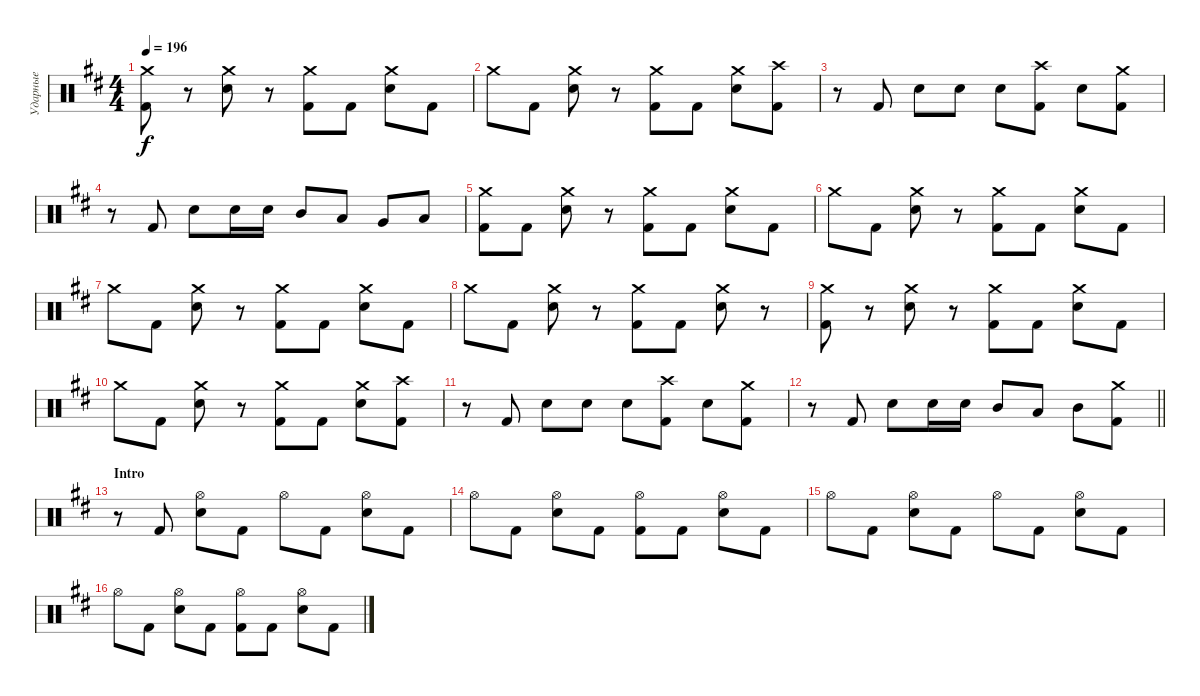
\track ("Ударные" "Ударные") {instrument percussion}
\staff {score}
\articulation defaults
\ts (4 4)
\tempo 196
\clef neutral
\ks d
("Crash medium (hit)" "Kick (hit) 2").8{dy f} r.8 ("Crash medium (hit)" "Electric Snare (hit)").8 r.8 ("Crash medium (hit)" "Kick (hit) 2").8 "Kick (hit) 2".8 ("Crash medium (hit)" "Electric Snare (hit)").8 "Kick (hit) 2".8 |
"Crash medium (hit)".8 "Kick (hit) 2".8 ("Crash medium (hit)" "Electric Snare (hit)").8 r.8 ("Crash medium (hit)" "Kick (hit) 2").8 "Kick (hit) 2".8 ("Crash medium (hit)" "Electric Snare (hit)").8 ("Crash high (hit)" "Kick (hit) 2").8 |
r.8 "Kick (hit) 2".8 "Electric Snare (hit)".8 "Electric Snare (hit)".8 "Electric Snare (hit)".8 ("Crash high (hit)" "Kick (hit) 2").8 "Electric Snare (hit)".8 ("Crash medium (hit)" "Kick (hit) 2").8 |
r.8 "Kick (hit) 2".8 "Electric Snare (hit)".8 "Electric Snare (hit)".16 "Electric Snare (hit)".16 "Mid Tom (hit)".8 "Low Tom (hit)".8 "Very Low Tom (hit)".8 "Low Floor Tom (hit)".8 |
("Crash medium (hit)" "Kick (hit) 2").8 "Kick (hit) 2".8 ("Crash medium (hit)" "Electric Snare (hit)").8 r.8 ("Crash medium (hit)" "Kick (hit) 2").8 "Kick (hit) 2".8 ("Crash medium (hit)" "Electric Snare (hit)").8 "Kick (hit) 2".8 |
"Crash medium (hit)".8 "Kick (hit) 2".8 ("Crash medium (hit)" "Electric Snare (hit)").8 r.8 ("Crash medium (hit)" "Kick (hit) 2").8 "Kick (hit) 2".8 ("Crash medium (hit)" "Electric Snare (hit)").8 "Kick (hit) 2".8 |
"Crash medium (hit)".8 "Kick (hit) 2".8 ("Crash medium (hit)" "Electric Snare (hit)").8 r.8 ("Crash medium (hit)" "Kick (hit) 2").8 "Kick (hit) 2".8 ("Crash medium (hit)" "Electric Snare (hit)").8 "Kick (hit) 2".8 |
"Crash medium (hit)".8 "Kick (hit) 2".8 ("Crash medium (hit)" "Electric Snare (hit)").8 r.8 ("Crash medium (hit)" "Kick (hit) 2").8 "Kick (hit) 2".8 ("Crash medium (hit)" "Electric Snare (hit)").8 r.8 |
("Crash medium (hit)" "Kick (hit) 2").8 r.8 ("Crash medium (hit)" "Electric Snare (hit)").8 r.8 ("Crash medium (hit)" "Kick (hit) 2").8 "Kick (hit) 2".8 ("Crash medium (hit)" "Electric Snare (hit)").8 "Kick (hit) 2".8 |
"Crash medium (hit)".8 "Kick (hit) 2".8 ("Crash medium (hit)" "Electric Snare (hit)").8 r.8 ("Crash medium (hit)" "Kick (hit) 2").8 "Kick (hit) 2".8 ("Crash medium (hit)" "Electric Snare (hit)").8 ("Crash high (hit)" "Kick (hit) 2").8 |
r.8 "Kick (hit) 2".8 "Electric Snare (hit)".8 "Electric Snare (hit)".8 "Electric Snare (hit)".8 ("Crash high (hit)" "Kick (hit) 2").8 "Electric Snare (hit)".8 ("Crash medium (hit)" "Kick (hit) 2").8 |
\barLineRight lightlight
r.8 "Kick (hit) 2".8 "Electric Snare (hit)".8 "Electric Snare (hit)".16 "Electric Snare (hit)".16 "Mid Tom (hit)".8 "Low Tom (hit)".8 "Mid Tom (hit)".8 ("Crash medium (hit)" "Kick (hit) 2").8 |
\section ("" "Intro")
r.8 "Kick (hit) 2".8 ("Hi-Hat (open)" "Electric Snare (hit)").8 "Kick (hit) 2".8 "Hi-Hat (open)".8 "Kick (hit) 2".8 ("Hi-Hat (open)" "Electric Snare (hit)").8 "Kick (hit) 2".8 |
"Hi-Hat (open)".8 "Kick (hit) 2".8 ("Hi-Hat (open)" "Electric Snare (hit)").8 "Kick (hit) 2".8 ("Hi-Hat (open)" "Kick (hit) 2").8 "Kick (hit) 2".8 ("Hi-Hat (open)" "Electric Snare (hit)").8 "Kick (hit) 2".8 |
"Hi-Hat (open)".8 "Kick (hit) 2".8 ("Hi-Hat (open)" "Electric Snare (hit)").8 "Kick (hit) 2".8 "Hi-Hat (open)".8 "Kick (hit) 2".8 ("Hi-Hat (open)" "Electric Snare (hit)").8 "Kick (hit) 2".8 |
"Hi-Hat (open)".8 "Kick (hit) 2".8 ("Hi-Hat (open)" "Electric Snare (hit)").8 "Kick (hit) 2".8 ("Hi-Hat (open)" "Kick (hit) 2").8 "Kick (hit) 2".8 ("Hi-Hat (open)" "Electric Snare (hit)").8 "Kick (hit) 2".8
